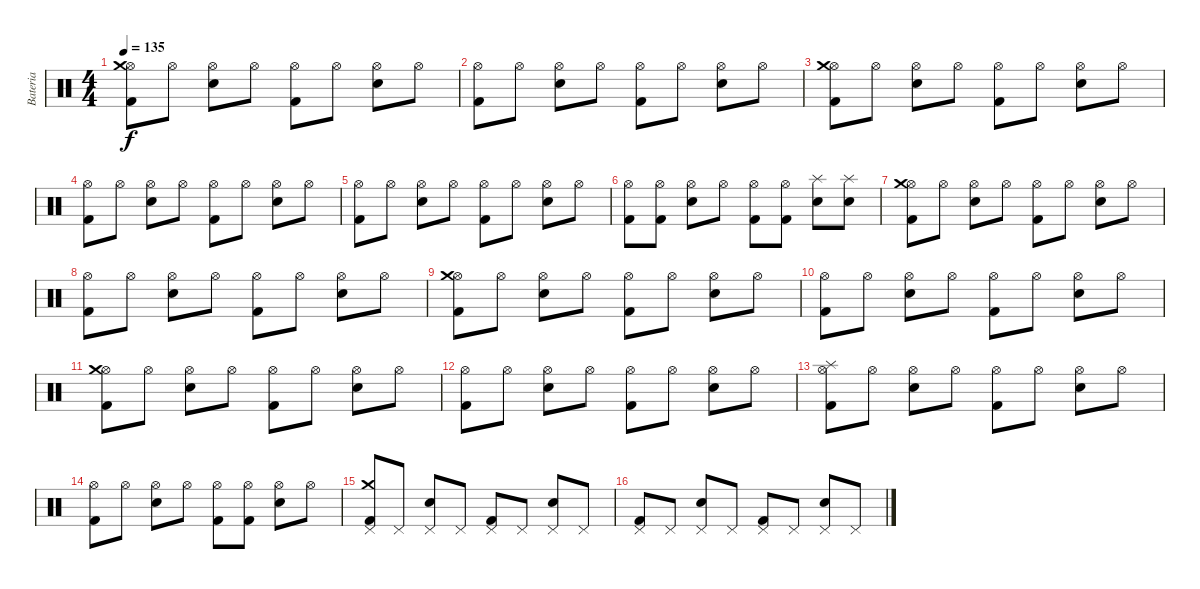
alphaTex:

\track ("Bateria" "Bateria") {instrument percussion}
\staff {score}
\articulation defaults
\ts (4 4)
\tempo 135
\clef neutral
\ks c
("Kick (hit) 2" "Hi-Hat (open)" "Crash medium (hit)").8{dy f} "Hi-Hat (open)".8 ("Electric Snare (hit)" "Hi-Hat (open)").8 "Hi-Hat (open)".8 ("Kick (hit) 2" "Hi-Hat (open)").8 "Hi-Hat (open)".8 ("Electric Snare (hit)" "Hi-Hat (open)").8 "Hi-Hat (open)".8 |
("Kick (hit) 2" "Hi-Hat (open)").8 "Hi-Hat (open)".8 ("Electric Snare (hit)" "Hi-Hat (open)").8 "Hi-Hat (open)".8 ("Kick (hit) 2" "Hi-Hat (open)").8 "Hi-Hat (open)".8 ("Electric Snare (hit)" "Hi-Hat (open)").8 "Hi-Hat (open)".8 |
("Kick (hit) 2" "Hi-Hat (open)" "Crash medium (hit)").8 "Hi-Hat (open)".8 ("Electric Snare (hit)" "Hi-Hat (open)").8 "Hi-Hat (open)".8 ("Kick (hit) 2" "Hi-Hat (open)").8 "Hi-Hat (open)".8 ("Electric Snare (hit)" "Hi-Hat (open)").8 "Hi-Hat (open)".8 |
("Kick (hit) 2" "Hi-Hat (open)").8 "Hi-Hat (open)".8 ("Electric Snare (hit)" "Hi-Hat (open)").8 "Hi-Hat (open)".8 ("Kick (hit) 2" "Hi-Hat (open)").8 "Hi-Hat (open)".8 ("Electric Snare (hit)" "Hi-Hat (open)").8 "Hi-Hat (open)".8 |
("Kick (hit) 2" "Hi-Hat (open)").8 "Hi-Hat (open)".8 ("Electric Snare (hit)" "Hi-Hat (open)").8 "Hi-Hat (open)".8 ("Kick (hit) 2" "Hi-Hat (open)").8 "Hi-Hat (open)".8 ("Electric Snare (hit)" "Hi-Hat (open)").8 "Hi-Hat (open)".8 |
("Kick (hit) 2" "Hi-Hat (open)").8 ("Kick (hit) 2" "Hi-Hat (open)").8 ("Electric Snare (hit)" "Hi-Hat (open)").8 "Hi-Hat (open)".8 ("Kick (hit) 2" "Hi-Hat (open)").8 ("Kick (hit) 2" "Hi-Hat (open)").8 ("Electric Snare (hit)" "Splash (hit)").8 ("Electric Snare (hit)" "Splash (hit)").8 |
("Kick (hit) 2" "Hi-Hat (open)" "Crash medium (hit)").8 "Hi-Hat (open)".8 ("Electric Snare (hit)" "Hi-Hat (open)").8 "Hi-Hat (open)".8 ("Kick (hit) 2" "Hi-Hat (open)").8 "Hi-Hat (open)".8 ("Electric Snare (hit)" "Hi-Hat (open)").8 "Hi-Hat (open)".8 |
("Kick (hit) 2" "Hi-Hat (open)").8 "Hi-Hat (open)".8 ("Electric Snare (hit)" "Hi-Hat (open)").8 "Hi-Hat (open)".8 ("Kick (hit) 2" "Hi-Hat (open)").8 "Hi-Hat (open)".8 ("Electric Snare (hit)" "Hi-Hat (open)").8 "Hi-Hat (open)".8 |
("Kick (hit) 2" "Hi-Hat (open)" "Crash medium (hit)").8 "Hi-Hat (open)".8 ("Electric Snare (hit)" "Hi-Hat (open)").8 "Hi-Hat (open)".8 ("Kick (hit) 2" "Hi-Hat (open)").8 "Hi-Hat (open)".8 ("Electric Snare (hit)" "Hi-Hat (open)").8 "Hi-Hat (open)".8 |
("Kick (hit) 2" "Hi-Hat (open)").8 "Hi-Hat (open)".8 ("Electric Snare (hit)" "Hi-Hat (open)").8 "Hi-Hat (open)".8 ("Kick (hit) 2" "Hi-Hat (open)").8 "Hi-Hat (open)".8 ("Electric Snare (hit)" "Hi-Hat (open)").8 "Hi-Hat (open)".8 |
("Kick (hit) 2" "Hi-Hat (open)" "Crash medium (hit)").8 "Hi-Hat (open)".8 ("Electric Snare (hit)" "Hi-Hat (open)").8 "Hi-Hat (open)".8 ("Kick (hit) 2" "Hi-Hat (open)").8 "Hi-Hat (open)".8 ("Electric Snare (hit)" "Hi-Hat (open)").8 "Hi-Hat (open)".8 |
("Kick (hit) 2" "Hi-Hat (open)").8 "Hi-Hat (open)".8 ("Electric Snare (hit)" "Hi-Hat (open)").8 "Hi-Hat (open)".8 ("Kick (hit) 2" "Hi-Hat (open)").8 "Hi-Hat (open)".8 ("Electric Snare (hit)" "Hi-Hat (open)").8 "Hi-Hat (open)".8 |
("Kick (hit) 2" "Hi-Hat (open)" "Splash (hit)").8 "Hi-Hat (open)".8 ("Electric Snare (hit)" "Hi-Hat (open)").8 "Hi-Hat (open)".8 ("Kick (hit) 2" "Hi-Hat (open)").8 "Hi-Hat (open)".8 ("Electric Snare (hit)" "Hi-Hat (open)").8 "Hi-Hat (open)".8 |
("Kick (hit) 2" "Hi-Hat (open)").8 "Hi-Hat (open)".8 ("Electric Snare (hit)" "Hi-Hat (open)").8 "Hi-Hat (open)".8 ("Kick (hit) 2" "Hi-Hat (open)").8 ("Kick (hit) 2" "Hi-Hat (open)").8 ("Electric Snare (hit)" "Hi-Hat (open)").8 "Hi-Hat (open)".8 |
("Kick (hit) 2" "Pedal Hi-Hat (hit)" "Crash medium (hit)").8 "Pedal Hi-Hat (hit)".8 ("Electric Snare (hit)" "Pedal Hi-Hat (hit)").8 "Pedal Hi-Hat (hit)".8 ("Kick (hit) 2" "Pedal Hi-Hat (hit)").8 "Pedal Hi-Hat (hit)".8 ("Electric Snare (hit)" "Pedal Hi-Hat (hit)").8 "Pedal Hi-Hat (hit)".8 |
("Kick (hit) 2" "Pedal Hi-Hat (hit)").8 "Pedal Hi-Hat (hit)".8 ("Electric Snare (hit)" "Pedal Hi-Hat (hit)").8 "Pedal Hi-Hat (hit)".8 ("Kick (hit) 2" "Pedal Hi-Hat (hit)").8 "Pedal Hi-Hat (hit)".8 ("Electric Snare (hit)" "Pedal Hi-Hat (hit)").8 "Pedal Hi-Hat (hit)".8
